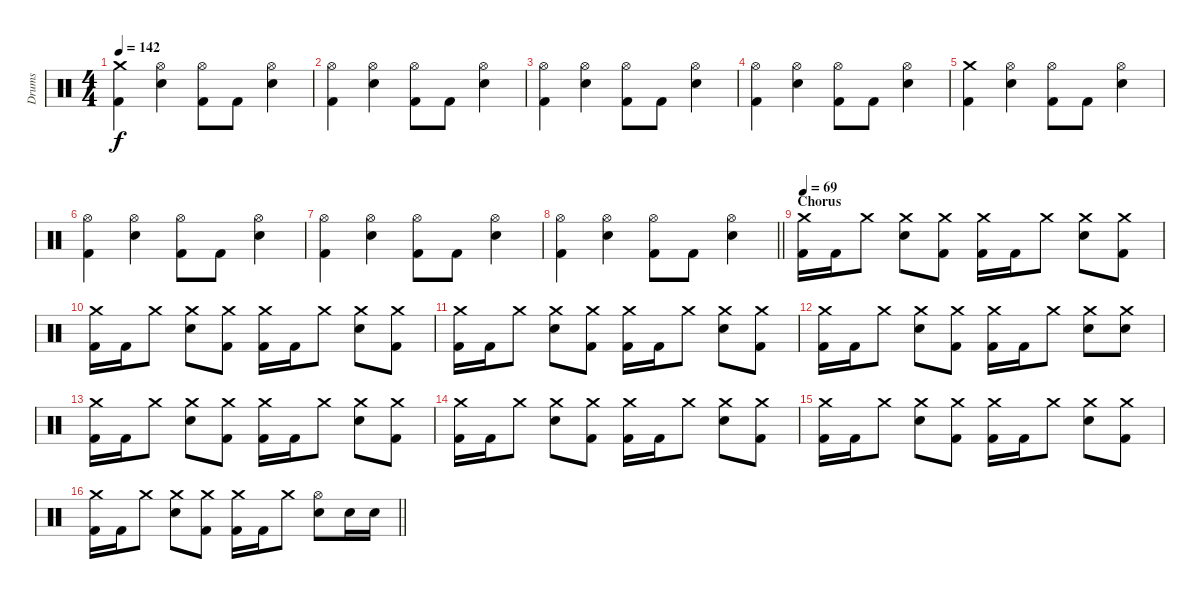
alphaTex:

\track ("Drums" "Drums") {instrument percussion}
\staff {score}
\articulation defaults
\ts (4 4)
\tempo 142
\clef neutral
\ks c
("Crash medium (hit)" "Kick (hit) 2").4{dy f} ("Hi-Hat (open)" "Electric Snare (hit)").4 ("Hi-Hat (open)" "Kick (hit) 2").8 "Kick (hit) 2".8 ("Hi-Hat (open)" "Electric Snare (hit)").4 |
("Hi-Hat (open)" "Kick (hit) 2").4 ("Hi-Hat (open)" "Electric Snare (hit)").4 ("Hi-Hat (open)" "Kick (hit) 2").8 "Kick (hit) 2".8 ("Hi-Hat (open)" "Electric Snare (hit)").4 |
("Hi-Hat (open)" "Kick (hit) 2").4 ("Hi-Hat (open)" "Electric Snare (hit)").4 ("Hi-Hat (open)" "Kick (hit) 2").8 "Kick (hit) 2".8 ("Hi-Hat (open)" "Electric Snare (hit)").4 |
("Hi-Hat (open)" "Kick (hit) 2").4 ("Hi-Hat (open)" "Electric Snare (hit)").4 ("Hi-Hat (open)" "Kick (hit) 2").8 "Kick (hit) 2".8 ("Hi-Hat (open)" "Electric Snare (hit)").4 |
("Crash medium (hit)" "Kick (hit) 2").4 ("Hi-Hat (open)" "Electric Snare (hit)").4 ("Hi-Hat (open)" "Kick (hit) 2").8 "Kick (hit) 2".8 ("Hi-Hat (open)" "Electric Snare (hit)").4 |
("Hi-Hat (open)" "Kick (hit) 2").4 ("Hi-Hat (open)" "Electric Snare (hit)").4 ("Hi-Hat (open)" "Kick (hit) 2").8 "Kick (hit) 2".8 ("Hi-Hat (open)" "Electric Snare (hit)").4 |
("Hi-Hat (open)" "Kick (hit) 2").4 ("Hi-Hat (open)" "Electric Snare (hit)").4 ("Hi-Hat (open)" "Kick (hit) 2").8 "Kick (hit) 2".8 ("Hi-Hat (open)" "Electric Snare (hit)").4 |
\barLineRight lightlight
("Hi-Hat (open)" "Kick (hit) 2").4 ("Hi-Hat (open)" "Electric Snare (hit)").4 ("Hi-Hat (open)" "Kick (hit) 2").8 "Kick (hit) 2".8 ("Hi-Hat (open)" "Electric Snare (hit)").4 |
\section ("" "Chorus")
\tempo 69
("Crash medium (hit)" "Kick (hit) 2").16 "Kick (hit) 2".16 "Crash medium (hit)".8 ("Crash medium (hit)" "Electric Snare (hit)").8 ("Crash medium (hit)" "Kick (hit) 2").8 ("Crash medium (hit)" "Kick (hit) 2").16 "Kick (hit) 2".16 "Crash medium (hit)".8 ("Crash medium (hit)" "Electric Snare (hit)").8 ("Crash medium (hit)" "Kick (hit) 2").8 |
("Crash medium (hit)" "Kick (hit) 2").16 "Kick (hit) 2".16 "Crash medium (hit)".8 ("Crash medium (hit)" "Electric Snare (hit)").8 ("Crash medium (hit)" "Kick (hit) 2").8 ("Crash medium (hit)" "Kick (hit) 2").16 "Kick (hit) 2".16 "Crash medium (hit)".8 ("Crash medium (hit)" "Electric Snare (hit)").8 ("Crash medium (hit)" "Kick (hit) 2").8 |
("Crash medium (hit)" "Kick (hit) 2").16 "Kick (hit) 2".16 "Crash medium (hit)".8 ("Crash medium (hit)" "Electric Snare (hit)").8 ("Crash medium (hit)" "Kick (hit) 2").8 ("Crash medium (hit)" "Kick (hit) 2").16 "Kick (hit) 2".16 "Crash medium (hit)".8 ("Crash medium (hit)" "Electric Snare (hit)").8 ("Crash medium (hit)" "Kick (hit) 2").8 |
("Crash medium (hit)" "Kick (hit) 2").16 "Kick (hit) 2".16 "Crash medium (hit)".8 ("Crash medium (hit)" "Electric Snare (hit)").8 ("Crash medium (hit)" "Kick (hit) 2").8 ("Crash medium (hit)" "Kick (hit) 2").16 "Kick (hit) 2".16 "Crash medium (hit)".8 ("Crash medium (hit)" "Electric Snare (hit)").8 ("Crash medium (hit)" "Electric Snare (hit)").8 |
("Crash medium (hit)" "Kick (hit) 2").16 "Kick (hit) 2".16 "Crash medium (hit)".8 ("Crash medium (hit)" "Electric Snare (hit)").8 ("Crash medium (hit)" "Kick (hit) 2").8 ("Crash medium (hit)" "Kick (hit) 2").16 "Kick (hit) 2".16 "Crash medium (hit)".8 ("Crash medium (hit)" "Electric Snare (hit)").8 ("Crash medium (hit)" "Kick (hit) 2").8 |
("Crash medium (hit)" "Kick (hit) 2").16 "Kick (hit) 2".16 "Crash medium (hit)".8 ("Crash medium (hit)" "Electric Snare (hit)").8 ("Crash medium (hit)" "Kick (hit) 2").8 ("Crash medium (hit)" "Kick (hit) 2").16 "Kick (hit) 2".16 "Crash medium (hit)".8 ("Crash medium (hit)" "Electric Snare (hit)").8 ("Crash medium (hit)" "Kick (hit) 2").8 |
("Crash medium (hit)" "Kick (hit) 2").16 "Kick (hit) 2".16 "Crash medium (hit)".8 ("Crash medium (hit)" "Electric Snare (hit)").8 ("Crash medium (hit)" "Kick (hit) 2").8 ("Crash medium (hit)" "Kick (hit) 2").16 "Kick (hit) 2".16 "Crash medium (hit)".8 ("Crash medium (hit)" "Electric Snare (hit)").8 ("Crash medium (hit)" "Kick (hit) 2").8 |
\barLineRight lightlight
("Crash medium (hit)" "Kick (hit) 2").16 "Kick (hit) 2".16 "Crash medium (hit)".8 ("Crash medium (hit)" "Electric Snare (hit)").8 ("Crash medium (hit)" "Kick (hit) 2").8 ("Crash medium (hit)" "Kick (hit) 2").16 "Kick (hit) 2".16 "Crash medium (hit)".8 ("Hi-Hat (open)" "Electric Snare (hit)").8 "Electric Snare (hit)".16 "Electric Snare (hit)".16
